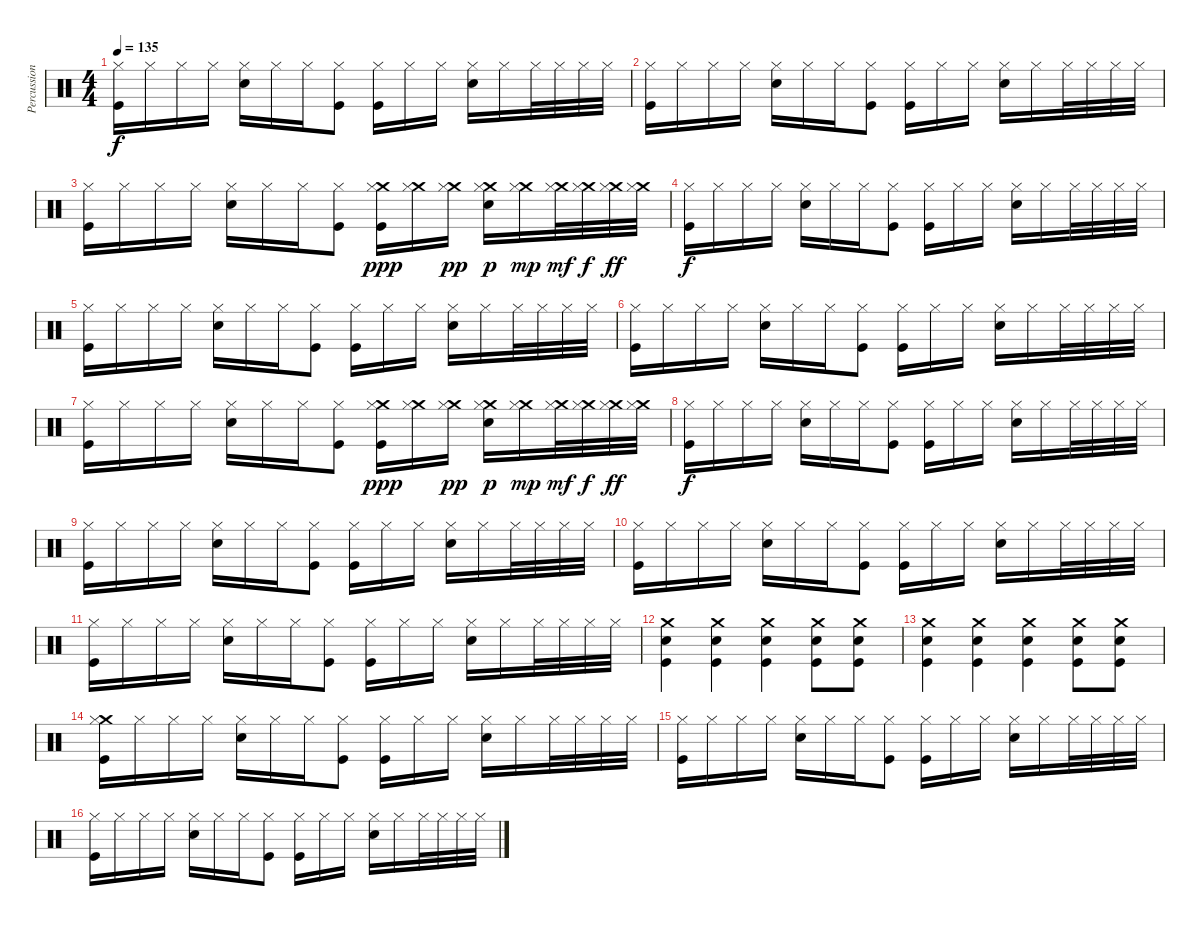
\track ("Percussion" "Percussion") {instrument percussion}
\staff {score}
\articulation defaults
\ts (4 4)
\tempo 135
\clef neutral
\ks c
("Hi-Hat (closed)" "Kick (hit)").16{dy f} "Hi-Hat (closed)".16 "Hi-Hat (closed)".16 "Hi-Hat (closed)".16 ("Hi-Hat (closed)" "Snare (hit) 2").16 "Hi-Hat (closed)".16 "Hi-Hat (closed)".16 ("Hi-Hat (closed)" "Kick (hit)").8 ("Hi-Hat (closed)" "Kick (hit)").16 "Hi-Hat (closed)".16 "Hi-Hat (closed)".16 ("Hi-Hat (closed)" "Snare (hit) 2").16 "Hi-Hat (closed)".16 "Hi-Hat (closed)".32 "Hi-Hat (closed)".32 "Hi-Hat (closed)".32 "Hi-Hat (closed)".32 |
("Hi-Hat (closed)" "Kick (hit)").16 "Hi-Hat (closed)".16 "Hi-Hat (closed)".16 "Hi-Hat (closed)".16 ("Hi-Hat (closed)" "Snare (hit) 2").16 "Hi-Hat (closed)".16 "Hi-Hat (closed)".16 ("Hi-Hat (closed)" "Kick (hit)").8 ("Hi-Hat (closed)" "Kick (hit)").16 "Hi-Hat (closed)".16 "Hi-Hat (closed)".16 ("Hi-Hat (closed)" "Snare (hit) 2").16 "Hi-Hat (closed)".16 "Hi-Hat (closed)".32 "Hi-Hat (closed)".32 "Hi-Hat (closed)".32 "Hi-Hat (closed)".32 |
("Hi-Hat (closed)" "Kick (hit)").16 "Hi-Hat (closed)".16 "Hi-Hat (closed)".16 "Hi-Hat (closed)".16 ("Hi-Hat (closed)" "Snare (hit) 2").16 "Hi-Hat (closed)".16 "Hi-Hat (closed)".16 ("Hi-Hat (closed)" "Kick (hit)").8 ("Crash medium (hit)" "Hi-Hat (closed)" "Kick (hit)").16{dy ppp} ("Crash medium (hit)" "Hi-Hat (closed)").16 ("Crash medium (hit)" "Hi-Hat (closed)").16{dy pp} ("Crash medium (hit)" "Hi-Hat (closed)" "Snare (hit) 2").16{dy p} ("Crash medium (hit)" "Hi-Hat (closed)").16{dy mp} ("Crash medium (hit)" "Hi-Hat (closed)").32{dy mf} ("Crash medium (hit)" "Hi-Hat (closed)").32{dy f} ("Crash medium (hit)" "Hi-Hat (closed)").32{dy ff} ("Crash medium (hit)" "Hi-Hat (closed)").32 |
("Hi-Hat (closed)" "Kick (hit)").16{dy f} "Hi-Hat (closed)".16 "Hi-Hat (closed)".16 "Hi-Hat (closed)".16 ("Hi-Hat (closed)" "Snare (hit) 2").16 "Hi-Hat (closed)".16 "Hi-Hat (closed)".16 ("Hi-Hat (closed)" "Kick (hit)").8 ("Hi-Hat (closed)" "Kick (hit)").16 "Hi-Hat (closed)".16 "Hi-Hat (closed)".16 ("Hi-Hat (closed)" "Snare (hit) 2").16 "Hi-Hat (closed)".16 "Hi-Hat (closed)".32 "Hi-Hat (closed)".32 "Hi-Hat (closed)".32 "Hi-Hat (closed)".32 |
("Hi-Hat (closed)" "Kick (hit)").16 "Hi-Hat (closed)".16 "Hi-Hat (closed)".16 "Hi-Hat (closed)".16 ("Hi-Hat (closed)" "Snare (hit) 2").16 "Hi-Hat (closed)".16 "Hi-Hat (closed)".16 ("Hi-Hat (closed)" "Kick (hit)").8 ("Hi-Hat (closed)" "Kick (hit)").16 "Hi-Hat (closed)".16 "Hi-Hat (closed)".16 ("Hi-Hat (closed)" "Snare (hit) 2").16 "Hi-Hat (closed)".16 "Hi-Hat (closed)".32 "Hi-Hat (closed)".32 "Hi-Hat (closed)".32 "Hi-Hat (closed)".32 |
("Hi-Hat (closed)" "Kick (hit)").16 "Hi-Hat (closed)".16 "Hi-Hat (closed)".16 "Hi-Hat (closed)".16 ("Hi-Hat (closed)" "Snare (hit) 2").16 "Hi-Hat (closed)".16 "Hi-Hat (closed)".16 ("Hi-Hat (closed)" "Kick (hit)").8 ("Hi-Hat (closed)" "Kick (hit)").16 "Hi-Hat (closed)".16 "Hi-Hat (closed)".16 ("Hi-Hat (closed)" "Snare (hit) 2").16 "Hi-Hat (closed)".16 "Hi-Hat (closed)".32 "Hi-Hat (closed)".32 "Hi-Hat (closed)".32 "Hi-Hat (closed)".32 |
("Hi-Hat (closed)" "Kick (hit)").16 "Hi-Hat (closed)".16 "Hi-Hat (closed)".16 "Hi-Hat (closed)".16 ("Hi-Hat (closed)" "Snare (hit) 2").16 "Hi-Hat (closed)".16 "Hi-Hat (closed)".16 ("Hi-Hat (closed)" "Kick (hit)").8 ("Crash medium (hit)" "Hi-Hat (closed)" "Kick (hit)").16{dy ppp} ("Crash medium (hit)" "Hi-Hat (closed)").16 ("Crash medium (hit)" "Hi-Hat (closed)").16{dy pp} ("Crash medium (hit)" "Hi-Hat (closed)" "Snare (hit) 2").16{dy p} ("Crash medium (hit)" "Hi-Hat (closed)").16{dy mp} ("Crash medium (hit)" "Hi-Hat (closed)").32{dy mf} ("Crash medium (hit)" "Hi-Hat (closed)").32{dy f} ("Crash medium (hit)" "Hi-Hat (closed)").32{dy ff} ("Crash medium (hit)" "Hi-Hat (closed)").32 |
("Hi-Hat (closed)" "Kick (hit)").16{dy f} "Hi-Hat (closed)".16 "Hi-Hat (closed)".16 "Hi-Hat (closed)".16 ("Hi-Hat (closed)" "Snare (hit) 2").16 "Hi-Hat (closed)".16 "Hi-Hat (closed)".16 ("Hi-Hat (closed)" "Kick (hit)").8 ("Hi-Hat (closed)" "Kick (hit)").16 "Hi-Hat (closed)".16 "Hi-Hat (closed)".16 ("Hi-Hat (closed)" "Snare (hit) 2").16 "Hi-Hat (closed)".16 "Hi-Hat (closed)".32 "Hi-Hat (closed)".32 "Hi-Hat (closed)".32 "Hi-Hat (closed)".32 |
("Hi-Hat (closed)" "Kick (hit)").16 "Hi-Hat (closed)".16 "Hi-Hat (closed)".16 "Hi-Hat (closed)".16 ("Hi-Hat (closed)" "Snare (hit) 2").16 "Hi-Hat (closed)".16 "Hi-Hat (closed)".16 ("Hi-Hat (closed)" "Kick (hit)").8 ("Hi-Hat (closed)" "Kick (hit)").16 "Hi-Hat (closed)".16 "Hi-Hat (closed)".16 ("Hi-Hat (closed)" "Snare (hit) 2").16 "Hi-Hat (closed)".16 "Hi-Hat (closed)".32 "Hi-Hat (closed)".32 "Hi-Hat (closed)".32 "Hi-Hat (closed)".32 |
("Hi-Hat (closed)" "Kick (hit)").16 "Hi-Hat (closed)".16 "Hi-Hat (closed)".16 "Hi-Hat (closed)".16 ("Hi-Hat (closed)" "Snare (hit) 2").16 "Hi-Hat (closed)".16 "Hi-Hat (closed)".16 ("Hi-Hat (closed)" "Kick (hit)").8 ("Hi-Hat (closed)" "Kick (hit)").16 "Hi-Hat (closed)".16 "Hi-Hat (closed)".16 ("Hi-Hat (closed)" "Snare (hit) 2").16 "Hi-Hat (closed)".16 "Hi-Hat (closed)".32 "Hi-Hat (closed)".32 "Hi-Hat (closed)".32 "Hi-Hat (closed)".32 |
("Hi-Hat (closed)" "Kick (hit)").16 "Hi-Hat (closed)".16 "Hi-Hat (closed)".16 "Hi-Hat (closed)".16 ("Hi-Hat (closed)" "Snare (hit) 2").16 "Hi-Hat (closed)".16 "Hi-Hat (closed)".16 ("Hi-Hat (closed)" "Kick (hit)").8 ("Hi-Hat (closed)" "Kick (hit)").16 "Hi-Hat (closed)".16 "Hi-Hat (closed)".16 ("Hi-Hat (closed)" "Snare (hit) 2").16 "Hi-Hat (closed)".16 "Hi-Hat (closed)".32 "Hi-Hat (closed)".32 "Hi-Hat (closed)".32 "Hi-Hat (closed)".32 |
("Crash medium (hit)" "Snare (hit) 2" "Kick (hit)").4 ("Crash medium (hit)" "Snare (hit) 2" "Kick (hit)").4 ("Crash medium (hit)" "Snare (hit) 2" "Kick (hit)").4 ("Crash medium (hit)" "Snare (hit) 2" "Kick (hit)").8 ("Crash medium (hit)" "Snare (hit) 2" "Kick (hit)").8 |
("Crash medium (hit)" "Snare (hit) 2" "Kick (hit)").4 ("Crash medium (hit)" "Snare (hit) 2" "Kick (hit)").4 ("Crash medium (hit)" "Snare (hit) 2" "Kick (hit)").4 ("Crash medium (hit)" "Snare (hit) 2" "Kick (hit)").8 ("Crash medium (hit)" "Snare (hit) 2" "Kick (hit)").8 |
("Crash medium (hit)" "Hi-Hat (closed)" "Kick (hit)").16 "Hi-Hat (closed)".16 "Hi-Hat (closed)".16 "Hi-Hat (closed)".16 ("Hi-Hat (closed)" "Snare (hit) 2").16 "Hi-Hat (closed)".16 "Hi-Hat (closed)".16 ("Hi-Hat (closed)" "Kick (hit)").8 ("Hi-Hat (closed)" "Kick (hit)").16 "Hi-Hat (closed)".16 "Hi-Hat (closed)".16 ("Hi-Hat (closed)" "Snare (hit) 2").16 "Hi-Hat (closed)".16 "Hi-Hat (closed)".32 "Hi-Hat (closed)".32 "Hi-Hat (closed)".32 "Hi-Hat (closed)".32 |
("Hi-Hat (closed)" "Kick (hit)").16 "Hi-Hat (closed)".16 "Hi-Hat (closed)".16 "Hi-Hat (closed)".16 ("Hi-Hat (closed)" "Snare (hit) 2").16 "Hi-Hat (closed)".16 "Hi-Hat (closed)".16 ("Hi-Hat (closed)" "Kick (hit)").8 ("Hi-Hat (closed)" "Kick (hit)").16 "Hi-Hat (closed)".16 "Hi-Hat (closed)".16 ("Hi-Hat (closed)" "Snare (hit) 2").16 "Hi-Hat (closed)".16 "Hi-Hat (closed)".32 "Hi-Hat (closed)".32 "Hi-Hat (closed)".32 "Hi-Hat (closed)".32 |
("Hi-Hat (closed)" "Kick (hit)").16 "Hi-Hat (closed)".16 "Hi-Hat (closed)".16 "Hi-Hat (closed)".16 ("Hi-Hat (closed)" "Snare (hit) 2").16 "Hi-Hat (closed)".16 "Hi-Hat (closed)".16 ("Hi-Hat (closed)" "Kick (hit)").8 ("Hi-Hat (closed)" "Kick (hit)").16 "Hi-Hat (closed)".16 "Hi-Hat (closed)".16 ("Hi-Hat (closed)" "Snare (hit) 2").16 "Hi-Hat (closed)".16 "Hi-Hat (closed)".32 "Hi-Hat (closed)".32 "Hi-Hat (closed)".32 "Hi-Hat (closed)".32
